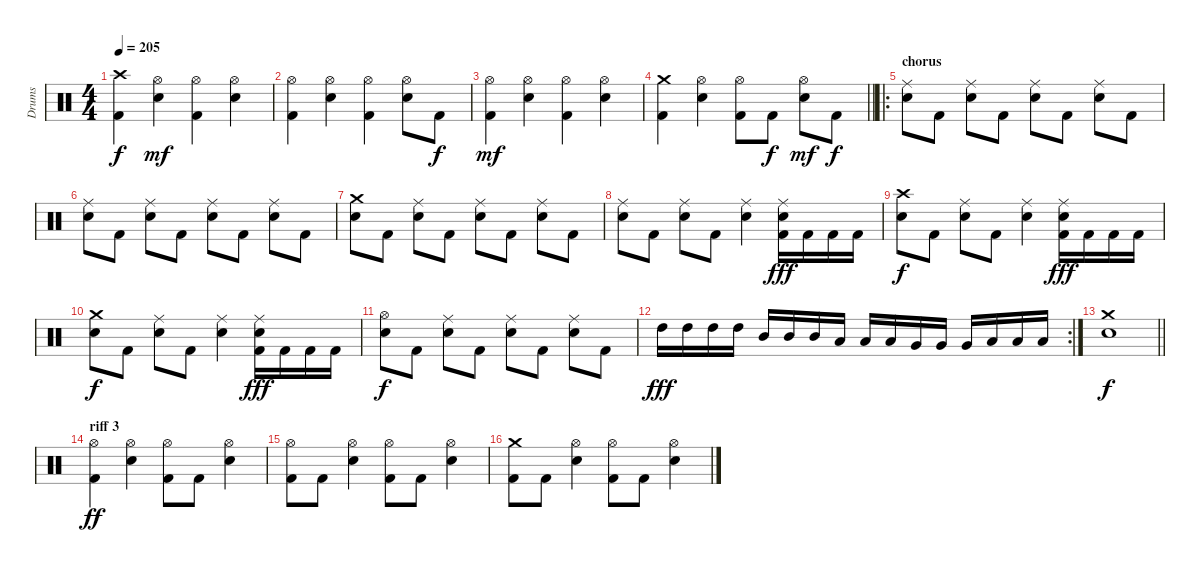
\track ("Drums" "Drums") {instrument percussion}
\staff {score}
\articulation defaults
\ts (4 4)
\tempo 205
\clef neutral
\ks c
("Crash high (hit)" "Kick (hit) 2").4{dy f} ("Hi-Hat (open)" "Snare (hit) 2").4{dy mf} ("Hi-Hat (open)" "Kick (hit) 2").4 ("Hi-Hat (open)" "Snare (hit) 2").4 |
("Hi-Hat (open)" "Kick (hit) 2").4 ("Hi-Hat (open)" "Snare (hit) 2").4 ("Hi-Hat (open)" "Kick (hit) 2").4 ("Hi-Hat (open)" "Snare (hit) 2").8 "Kick (hit) 2".8{dy f} |
("Hi-Hat (open)" "Kick (hit) 2").4{dy mf} ("Hi-Hat (open)" "Snare (hit) 2").4 ("Hi-Hat (open)" "Kick (hit) 2").4 ("Hi-Hat (open)" "Snare (hit) 2").4 |
\barLineRight lightlight
("Crash medium (hit)" "Kick (hit) 2").4 ("Hi-Hat (open)" "Snare (hit) 2").4 ("Hi-Hat (open)" "Kick (hit) 2").8 "Kick (hit) 2".8{dy f} ("Hi-Hat (open)" "Snare (hit) 2").8{dy mf} "Kick (hit) 2".8{dy f} |
\ro
\section ("" "chorus")
("Ride (middle)" "Snare (hit) 2").8 "Kick (hit) 2".8 ("Ride (middle)" "Snare (hit) 2").8 "Kick (hit) 2".8 ("Ride (middle)" "Snare (hit) 2").8 "Kick (hit) 2".8 ("Ride (middle)" "Snare (hit) 2").8 "Kick (hit) 2".8 |
("Ride (middle)" "Snare (hit) 2").8 "Kick (hit) 2".8 ("Ride (middle)" "Snare (hit) 2").8 "Kick (hit) 2".8 ("Ride (middle)" "Snare (hit) 2").8 "Kick (hit) 2".8 ("Ride (middle)" "Snare (hit) 2").8 "Kick (hit) 2".8 |
("Crash medium (hit)" "Snare (hit) 2").8 "Kick (hit) 2".8 ("Ride (middle)" "Snare (hit) 2").8 "Kick (hit) 2".8 ("Ride (middle)" "Snare (hit) 2").8 "Kick (hit) 2".8 ("Ride (middle)" "Snare (hit) 2").8 "Kick (hit) 2".8 |
("Ride (middle)" "Snare (hit) 2").8 "Kick (hit) 2".8 ("Ride (middle)" "Snare (hit) 2").8 "Kick (hit) 2".8 ("Ride (middle)" "Snare (hit) 2").4 ("Ride (middle)" "Snare (hit) 2" "Kick (hit) 2").16{dy fff} "Kick (hit) 2".16 "Kick (hit) 2".16 "Kick (hit) 2".16 |
("Crash high (hit)" "Snare (hit) 2").8{dy f} "Kick (hit) 2".8 ("Ride (middle)" "Snare (hit) 2").8 "Kick (hit) 2".8 ("Ride (middle)" "Snare (hit) 2").4 ("Ride (middle)" "Snare (hit) 2" "Kick (hit) 2").16{dy fff} "Kick (hit) 2".16 "Kick (hit) 2".16 "Kick (hit) 2".16 |
("Crash medium (hit)" "Snare (hit) 2").8{dy f} "Kick (hit) 2".8 ("Ride (middle)" "Snare (hit) 2").8 "Kick (hit) 2".8 ("Ride (middle)" "Snare (hit) 2").4 ("Ride (middle)" "Snare (hit) 2" "Kick (hit) 2").16{dy fff} "Kick (hit) 2".16 "Kick (hit) 2".16 "Kick (hit) 2".16 |
("Hi-Hat (open)" "Snare (hit) 2").8{dy f} "Kick (hit) 2".8 ("Ride (middle)" "Snare (hit) 2").8 "Kick (hit) 2".8 ("Ride (middle)" "Snare (hit) 2").8 "Kick (hit) 2".8 ("Ride (middle)" "Snare (hit) 2").8 "Kick (hit) 2".8 |
\rc 2 "High Tom (hit)".16{dy fff} "High Tom (hit)".16 "High Tom (hit)".16 "High Tom (hit)".16 "Mid Tom (hit)".16 "Mid Tom (hit)".16 "Mid Tom (hit)".16 "Low Tom (hit)".16 "Low Tom (hit)".16 "Low Tom (hit)".16 "Very Low Tom (hit)".16 "Very Low Tom (hit)".16 "Very Low Tom (hit)".16 "Low Floor Tom (hit)".16 "Low Floor Tom (hit)".16 "Low Floor Tom (hit)".16
|
\barLineRight lightlight
("Crash medium (hit)" "Snare (hit) 2").1{dy f} |
\section ("" "riff 3")
("Hi-Hat (open)" "Kick (hit) 2").4{dy ff} ("Hi-Hat (open)" "Snare (hit) 2").4 ("Hi-Hat (open)" "Kick (hit) 2").8 "Kick (hit) 2".8 ("Hi-Hat (open)" "Snare (hit) 2").4 |
("Hi-Hat (open)" "Kick (hit) 2").8 "Kick (hit) 2".8 ("Hi-Hat (open)" "Snare (hit) 2").4 ("Hi-Hat (open)" "Kick (hit) 2").8 "Kick (hit) 2".8 ("Hi-Hat (open)" "Snare (hit) 2").4 |
("Crash medium (hit)" "Kick (hit) 2").8 "Kick (hit) 2".8 ("Hi-Hat (open)" "Snare (hit) 2").4 ("Hi-Hat (open)" "Kick (hit) 2").8 "Kick (hit) 2".8 ("Hi-Hat (open)" "Snare (hit) 2").4
